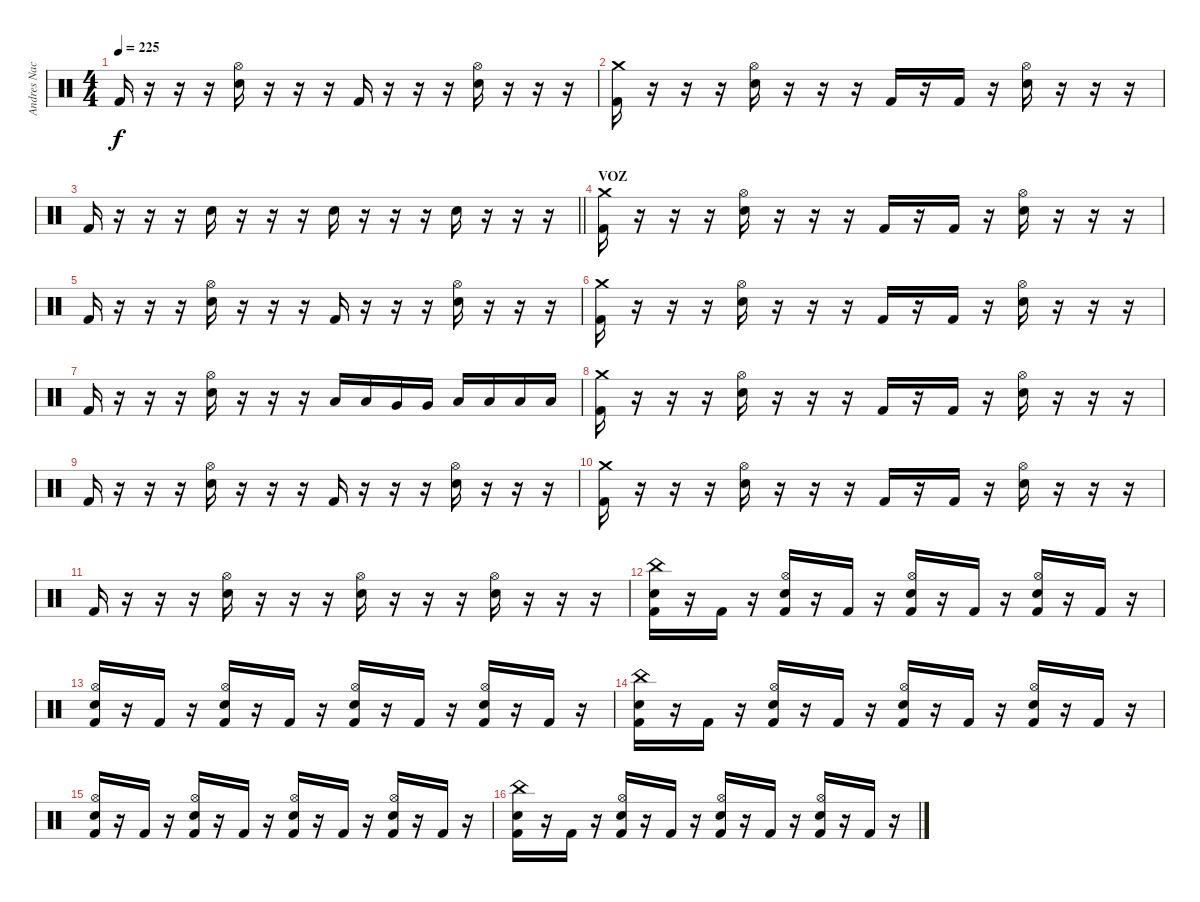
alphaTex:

\track ("Andres Nacrur" "Andres Nac") {instrument percussion}
\staff {score}
\articulation defaults
\ts (4 4)
\tempo 225
\clef neutral
\ks c "Kick (hit) 2".16{dy f}
r.16 r.16 r.16 ("Hi-Hat (open)" "Snare (hit) 2").16 r.16 r.16 r.16 "Kick (hit) 2".16 r.16 r.16 r.16 ("Hi-Hat (open)" "Snare (hit) 2").16 r.16 r.16 r.16 |
("Crash medium (hit)" "Kick (hit) 2").16 r.16 r.16 r.16 ("Hi-Hat (open)" "Snare (hit) 2").16 r.16 r.16 r.16 "Kick (hit) 2".16 r.16 "Kick (hit) 2".16 r.16 ("Hi-Hat (open)" "Snare (hit) 2").16 r.16 r.16 r.16 |
\barLineRight lightlight "Kick (hit) 2".16
r.16 r.16 r.16 "Snare (hit) 2".16 r.16 r.16 r.16 "Snare (hit) 2".16 r.16 r.16 r.16 "Snare (hit) 2".16 r.16 r.16 r.16 |
\section ("" "VOZ")
("Crash medium (hit)" "Kick (hit) 2").16 r.16 r.16 r.16 ("Hi-Hat (open)" "Snare (hit) 2").16 r.16 r.16 r.16 "Kick (hit) 2".16 r.16 "Kick (hit) 2".16 r.16 ("Hi-Hat (open)" "Snare (hit) 2").16 r.16 r.16 r.16 |
"Kick (hit) 2".16 r.16 r.16 r.16 ("Hi-Hat (open)" "Snare (hit) 2").16 r.16 r.16 r.16 "Kick (hit) 2".16 r.16 r.16 r.16 ("Hi-Hat (open)" "Snare (hit) 2").16 r.16 r.16 r.16 |
("Crash medium (hit)" "Kick (hit) 2").16 r.16 r.16 r.16 ("Hi-Hat (open)" "Snare (hit) 2").16 r.16 r.16 r.16 "Kick (hit) 2".16 r.16 "Kick (hit) 2".16 r.16 ("Hi-Hat (open)" "Snare (hit) 2").16 r.16 r.16 r.16 |
"Kick (hit) 2".16 r.16 r.16 r.16 ("Hi-Hat (open)" "Snare (hit) 2").16 r.16 r.16 r.16 "Low Tom (hit)".16 "Low Tom (hit)".16 "Very Low Tom (hit)".16 "Very Low Tom (hit)".16 "Low Floor Tom (hit)".16 "Low Floor Tom (hit)".16 "Low Floor Tom (hit)".16 "Low Floor Tom (hit)".16 |
("Crash medium (hit)" "Kick (hit) 2").16 r.16 r.16 r.16 ("Hi-Hat (open)" "Snare (hit) 2").16 r.16 r.16 r.16 "Kick (hit) 2".16 r.16 "Kick (hit) 2".16 r.16 ("Hi-Hat (open)" "Snare (hit) 2").16 r.16 r.16 r.16 |
"Kick (hit) 2".16 r.16 r.16 r.16 ("Hi-Hat (open)" "Snare (hit) 2").16 r.16 r.16 r.16 "Kick (hit) 2".16 r.16 r.16 r.16 ("Hi-Hat (open)" "Snare (hit) 2").16 r.16 r.16 r.16 |
("Crash medium (hit)" "Kick (hit) 2").16 r.16 r.16 r.16 ("Hi-Hat (open)" "Snare (hit) 2").16 r.16 r.16 r.16 "Kick (hit) 2".16 r.16 "Kick (hit) 2".16 r.16 ("Hi-Hat (open)" "Snare (hit) 2").16 r.16 r.16 r.16 |
"Kick (hit) 2".16 r.16 r.16 r.16 ("Hi-Hat (open)" "Snare (hit) 2").16 r.16 r.16 r.16 ("Hi-Hat (open)" "Snare (hit) 2").16 r.16 r.16 r.16 ("Hi-Hat (open)" "Snare (hit) 2").16 r.16 r.16 r.16 |
("China (hit)" "Snare (hit) 2" "Kick (hit) 2").16 r.16 "Kick (hit) 2".16 r.16 ("Hi-Hat (open)" "Snare (hit) 2" "Kick (hit) 2").16 r.16 "Kick (hit) 2".16 r.16 ("Hi-Hat (open)" "Snare (hit) 2" "Kick (hit) 2").16 r.16 "Kick (hit) 2".16 r.16 ("Hi-Hat (open)" "Snare (hit) 2" "Kick (hit) 2").16 r.16 "Kick (hit) 2".16 r.16 |
("Hi-Hat (open)" "Snare (hit) 2" "Kick (hit) 2").16 r.16 "Kick (hit) 2".16 r.16 ("Hi-Hat (open)" "Snare (hit) 2" "Kick (hit) 2").16 r.16 "Kick (hit) 2".16 r.16 ("Hi-Hat (open)" "Snare (hit) 2" "Kick (hit) 2").16 r.16 "Kick (hit) 2".16 r.16 ("Hi-Hat (open)" "Snare (hit) 2" "Kick (hit) 2").16 r.16 "Kick (hit) 2".16 r.16 |
("China (hit)" "Snare (hit) 2" "Kick (hit) 2").16 r.16 "Kick (hit) 2".16 r.16 ("Hi-Hat (open)" "Snare (hit) 2" "Kick (hit) 2").16 r.16 "Kick (hit) 2".16 r.16 ("Hi-Hat (open)" "Snare (hit) 2" "Kick (hit) 2").16 r.16 "Kick (hit) 2".16 r.16 ("Hi-Hat (open)" "Snare (hit) 2" "Kick (hit) 2").16 r.16 "Kick (hit) 2".16 r.16 |
("Hi-Hat (open)" "Snare (hit) 2" "Kick (hit) 2").16 r.16 "Kick (hit) 2".16 r.16 ("Hi-Hat (open)" "Snare (hit) 2" "Kick (hit) 2").16 r.16 "Kick (hit) 2".16 r.16 ("Hi-Hat (open)" "Snare (hit) 2" "Kick (hit) 2").16 r.16 "Kick (hit) 2".16 r.16 ("Hi-Hat (open)" "Snare (hit) 2" "Kick (hit) 2").16 r.16 "Kick (hit) 2".16 r.16 |
("China (hit)" "Snare (hit) 2" "Kick (hit) 2").16 r.16 "Kick (hit) 2".16 r.16 ("Hi-Hat (open)" "Snare (hit) 2" "Kick (hit) 2").16 r.16 "Kick (hit) 2".16 r.16 ("Hi-Hat (open)" "Snare (hit) 2" "Kick (hit) 2").16 r.16 "Kick (hit) 2".16 r.16 ("Hi-Hat (open)" "Snare (hit) 2" "Kick (hit) 2").16 r.16 "Kick (hit) 2".16 r.16
